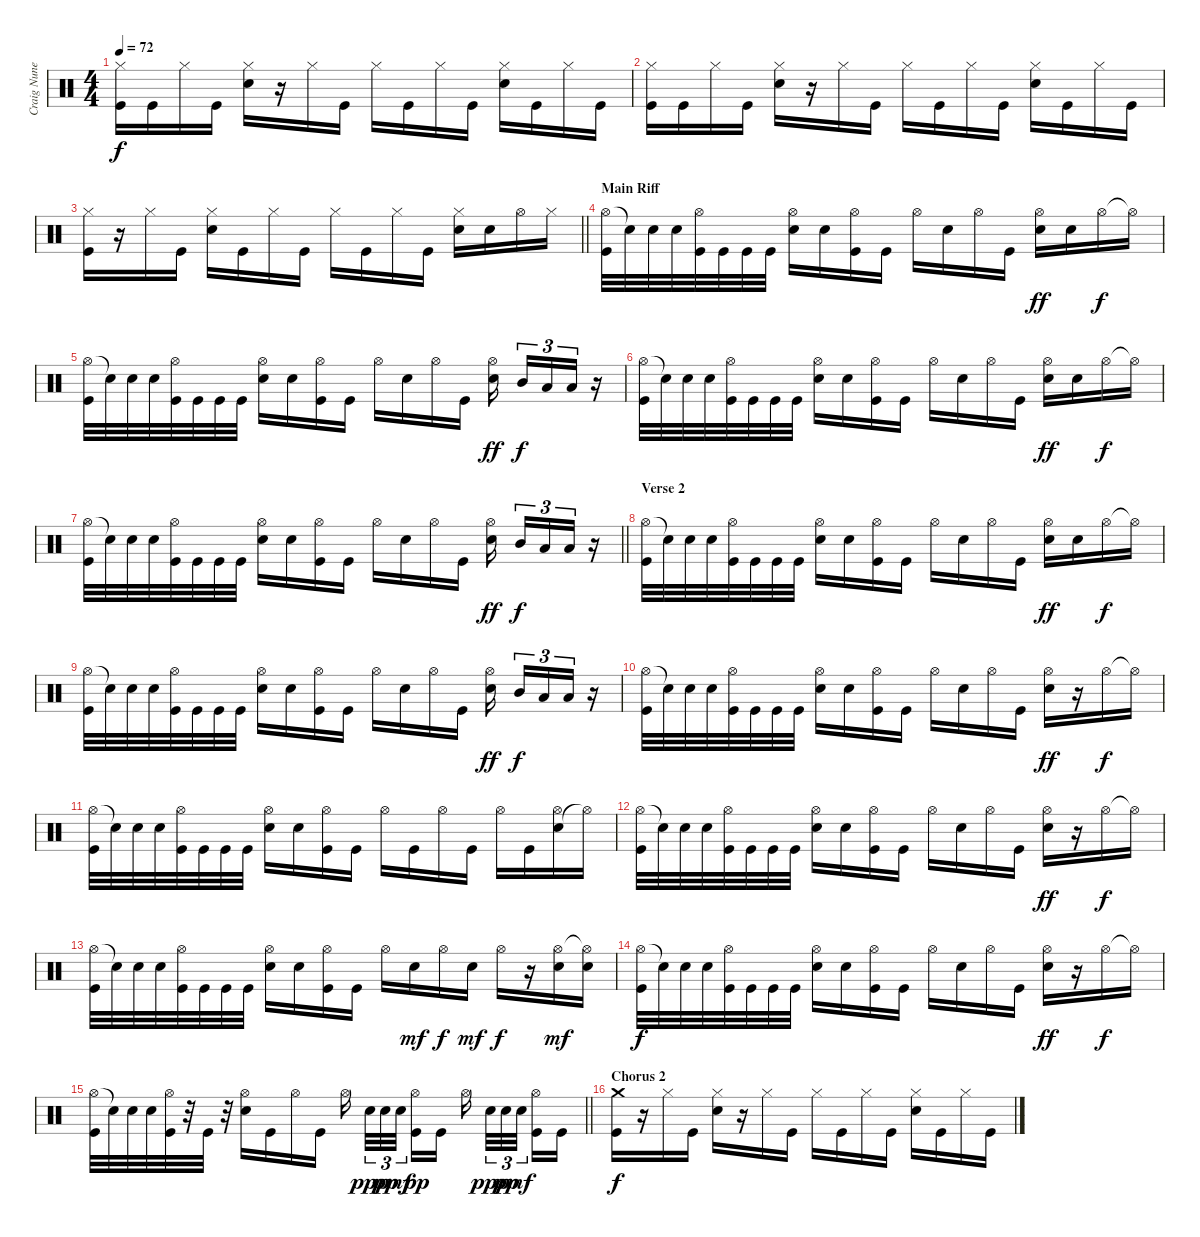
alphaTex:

\track ("Craig Nunenmacher" "Craig Nune") {instrument percussion}
\staff {score}
\articulation defaults
\ts (4 4)
\tempo 72
\clef neutral
\ks c
("Hi-Hat (closed)" "Kick (hit)").16{dy f} "Kick (hit)".16 "Hi-Hat (closed)".16 "Kick (hit)".16 ("Snare (hit) 2" "Hi-Hat (closed)").16 r.16 "Hi-Hat (closed)".16 "Kick (hit)".16 "Hi-Hat (closed)".16 "Kick (hit)".16 "Hi-Hat (closed)".16 "Kick (hit)".16 ("Snare (hit) 2" "Hi-Hat (closed)").16 "Kick (hit)".16 "Hi-Hat (closed)".16 "Kick (hit)".16 |
("Hi-Hat (closed)" "Kick (hit)").16 "Kick (hit)".16 "Hi-Hat (closed)".16 "Kick (hit)".16 ("Snare (hit) 2" "Hi-Hat (closed)").16 r.16 "Hi-Hat (closed)".16 "Kick (hit)".16 "Hi-Hat (closed)".16 "Kick (hit)".16 "Hi-Hat (closed)".16 "Kick (hit)".16 ("Snare (hit) 2" "Hi-Hat (closed)").16 "Kick (hit)".16 "Hi-Hat (closed)".16 "Kick (hit)".16 |
\barLineRight lightlight
("Hi-Hat (closed)" "Kick (hit)").16 r.16 "Hi-Hat (closed)".16 "Kick (hit)".16 ("Snare (hit) 2" "Hi-Hat (closed)").16 "Kick (hit)".16 "Hi-Hat (closed)".16 "Kick (hit)".16 "Hi-Hat (closed)".16 "Kick (hit)".16 "Hi-Hat (closed)".16 "Kick (hit)".16 ("Snare (hit) 2" "Hi-Hat (closed)").16 "Snare (hit) 2".16 "Hi-Hat (open)".16 "Hi-Hat (closed)".16 |
\section ("" "Main Riff")
("Hi-Hat (open)" "Kick (hit)").32 "Snare (hit)"{t}.32 "Snare (hit) 2".32 "Snare (hit) 2".32 ("Hi-Hat (open)" "Kick (hit)").32 "Kick (hit)".32 "Kick (hit)".32 "Kick (hit)".32 ("Snare (hit) 2" "Hi-Hat (open)").16 "Snare (hit) 2".16 ("Hi-Hat (open)" "Kick (hit)").16 "Kick (hit)".16 "Hi-Hat (open)".16 "Snare (hit) 2".16 "Hi-Hat (open)".16 "Kick (hit)".16 ("Snare (hit) 2" "Hi-Hat (open)").16{dy ff} "Snare (hit) 2".16 "Hi-Hat (open)".16{dy f} "Hi-Hat (open)"{t}.16 |
("Hi-Hat (open)" "Kick (hit)").32 "Snare (hit)"{t}.32 "Snare (hit) 2".32 "Snare (hit) 2".32 ("Hi-Hat (open)" "Kick (hit)").32 "Kick (hit)".32 "Kick (hit)".32 "Kick (hit)".32 ("Snare (hit) 2" "Hi-Hat (open)").16 "Snare (hit) 2".16 ("Hi-Hat (open)" "Kick (hit)").16 "Kick (hit)".16 "Hi-Hat (open)".16 "Snare (hit) 2".16 "Hi-Hat (open)".16 "Kick (hit)".16 ("Snare (hit) 2" "Hi-Hat (open)").16{dy ff beam splitsecondary} "Mid Tom (hit)".16{tu (3 2) dy f} "Low Tom (hit)".16{tu (3 2)} "Low Floor Tom (hit)".16{tu (3 2)} r.16 |
("Hi-Hat (open)" "Kick (hit)").32 "Snare (hit)"{t}.32 "Snare (hit) 2".32 "Snare (hit) 2".32 ("Hi-Hat (open)" "Kick (hit)").32 "Kick (hit)".32 "Kick (hit)".32 "Kick (hit)".32 ("Snare (hit) 2" "Hi-Hat (open)").16 "Snare (hit) 2".16 ("Hi-Hat (open)" "Kick (hit)").16 "Kick (hit)".16 "Hi-Hat (open)".16 "Snare (hit) 2".16 "Hi-Hat (open)".16 "Kick (hit)".16 ("Snare (hit) 2" "Hi-Hat (open)").16{dy ff} "Snare (hit) 2".16 "Hi-Hat (open)".16{dy f} "Hi-Hat (open)"{t}.16 |
\barLineRight lightlight
("Hi-Hat (open)" "Kick (hit)").32 "Snare (hit)"{t}.32 "Snare (hit) 2".32 "Snare (hit) 2".32 ("Hi-Hat (open)" "Kick (hit)").32 "Kick (hit)".32 "Kick (hit)".32 "Kick (hit)".32 ("Snare (hit) 2" "Hi-Hat (open)").16 "Snare (hit) 2".16 ("Hi-Hat (open)" "Kick (hit)").16 "Kick (hit)".16 "Hi-Hat (open)".16 "Snare (hit) 2".16 "Hi-Hat (open)".16 "Kick (hit)".16 ("Snare (hit) 2" "Hi-Hat (open)").16{dy ff beam splitsecondary} "Mid Tom (hit)".16{tu (3 2) dy f} "Low Tom (hit)".16{tu (3 2)} "Low Floor Tom (hit)".16{tu (3 2)} r.16 |
\section ("" "Verse 2")
("Hi-Hat (open)" "Kick (hit)").32 "Snare (hit)"{t}.32 "Snare (hit) 2".32 "Snare (hit) 2".32 ("Hi-Hat (open)" "Kick (hit)").32 "Kick (hit)".32 "Kick (hit)".32 "Kick (hit)".32 ("Snare (hit) 2" "Hi-Hat (open)").16 "Snare (hit) 2".16 ("Hi-Hat (open)" "Kick (hit)").16 "Kick (hit)".16 "Hi-Hat (open)".16 "Snare (hit) 2".16 "Hi-Hat (open)".16 "Kick (hit)".16 ("Snare (hit) 2" "Hi-Hat (open)").16{dy ff} "Snare (hit) 2".16 "Hi-Hat (open)".16{dy f} "Hi-Hat (open)"{t}.16 |
("Hi-Hat (open)" "Kick (hit)").32 "Snare (hit)"{t}.32 "Snare (hit) 2".32 "Snare (hit) 2".32 ("Hi-Hat (open)" "Kick (hit)").32 "Kick (hit)".32 "Kick (hit)".32 "Kick (hit)".32 ("Snare (hit) 2" "Hi-Hat (open)").16 "Snare (hit) 2".16 ("Hi-Hat (open)" "Kick (hit)").16 "Kick (hit)".16 "Hi-Hat (open)".16 "Snare (hit) 2".16 "Hi-Hat (open)".16 "Kick (hit)".16 ("Snare (hit) 2" "Hi-Hat (open)").16{dy ff beam splitsecondary} "Mid Tom (hit)".16{tu (3 2) dy f} "Low Tom (hit)".16{tu (3 2)} "Low Floor Tom (hit)".16{tu (3 2)} r.16 |
("Hi-Hat (open)" "Kick (hit)").32 "Snare (hit)"{t}.32 "Snare (hit) 2".32 "Snare (hit) 2".32 ("Hi-Hat (open)" "Kick (hit)").32 "Kick (hit)".32 "Kick (hit)".32 "Kick (hit)".32 ("Snare (hit) 2" "Hi-Hat (open)").16 "Snare (hit) 2".16 ("Hi-Hat (open)" "Kick (hit)").16 "Kick (hit)".16 "Hi-Hat (open)".16 "Snare (hit) 2".16 "Hi-Hat (open)".16 "Kick (hit)".16 ("Snare (hit) 2" "Hi-Hat (open)").16{dy ff} r.16 "Hi-Hat (open)".16{dy f} "Hi-Hat (open)"{t}.16 |
("Hi-Hat (open)" "Kick (hit)").32 "Snare (hit)"{t}.32 "Snare (hit) 2".32 "Snare (hit) 2".32 ("Hi-Hat (open)" "Kick (hit)").32 "Kick (hit)".32 "Kick (hit)".32 "Kick (hit)".32 ("Snare (hit) 2" "Hi-Hat (open)").16 "Snare (hit) 2".16 ("Hi-Hat (open)" "Kick (hit)").16 "Kick (hit)".16 "Hi-Hat (open)".16 "Kick (hit)".16 "Hi-Hat (open)".16 "Kick (hit)".16 "Hi-Hat (open)".16 "Kick (hit)".16 ("Snare (hit) 2" "Hi-Hat (open)").16 "Hi-Hat (open)"{t}.16 |
("Hi-Hat (open)" "Kick (hit)").32 "Snare (hit)"{t}.32 "Snare (hit) 2".32 "Snare (hit) 2".32 ("Hi-Hat (open)" "Kick (hit)").32 "Kick (hit)".32 "Kick (hit)".32 "Kick (hit)".32 ("Snare (hit) 2" "Hi-Hat (open)").16 "Snare (hit) 2".16 ("Hi-Hat (open)" "Kick (hit)").16 "Kick (hit)".16 "Hi-Hat (open)".16 "Snare (hit) 2".16 "Hi-Hat (open)".16 "Kick (hit)".16 ("Snare (hit) 2" "Hi-Hat (open)").16{dy ff} r.16 "Hi-Hat (open)".16{dy f} "Hi-Hat (open)"{t}.16 |
("Hi-Hat (open)" "Kick (hit)").32 "Snare (hit)"{t}.32 "Snare (hit) 2".32 "Snare (hit) 2".32 ("Hi-Hat (open)" "Kick (hit)").32 "Kick (hit)".32 "Kick (hit)".32 "Kick (hit)".32 ("Snare (hit) 2" "Hi-Hat (open)").16 "Snare (hit) 2".16 ("Hi-Hat (open)" "Kick (hit)").16 "Kick (hit)".16 "Hi-Hat (open)".16 "Snare (hit) 2".16{dy mf} "Hi-Hat (open)".16{dy f} "Snare (hit) 2".16{dy mf} "Hi-Hat (open)".16{dy f} r.16 ("Snare (hit) 2" "Hi-Hat (open)").16{dy mf} ("Snare (hit) 2" "Hi-Hat (open)"{t}).16 |
("Hi-Hat (open)" "Kick (hit)").32{dy f} "Snare (hit)"{t}.32 "Snare (hit) 2".32 "Snare (hit) 2".32 ("Hi-Hat (open)" "Kick (hit)").32 "Kick (hit)".32 "Kick (hit)".32 "Kick (hit)".32 ("Snare (hit) 2" "Hi-Hat (open)").16 "Snare (hit) 2".16 ("Hi-Hat (open)" "Kick (hit)").16 "Kick (hit)".16 "Hi-Hat (open)".16 "Snare (hit) 2".16 "Hi-Hat (open)".16 "Kick (hit)".16 ("Snare (hit) 2" "Hi-Hat (open)").16{dy ff} r.16 "Hi-Hat (open)".16{dy f} "Hi-Hat (open)"{t}.16 |
\barLineRight lightlight
("Hi-Hat (open)" "Kick (hit)").32 "Snare (hit)"{t}.32 "Snare (hit) 2".32 "Snare (hit) 2".32 ("Hi-Hat (open)" "Kick (hit)").32 r.32 "Kick (hit)".32 r.32 ("Snare (hit) 2" "Hi-Hat (open)").16 "Kick (hit)".16 "Hi-Hat (open)".16 "Kick (hit)".16 "Hi-Hat (open)".16{beam splitsecondary} "Snare (hit) 2".32{tu (3 2) dy ppp} "Snare (hit) 2".32{tu (3 2) dy pp} "Snare (hit) 2".32{tu (3 2) dy mf beam splitsecondary} ("Hi-Hat (open)" "Kick (hit)").16{dy pp} "Kick (hit)".16 "Hi-Hat (open)".16{beam splitsecondary} "Snare (hit) 2".32{tu (3 2) dy ppp} "Snare (hit) 2".32{tu (3 2) dy pp} "Snare (hit) 2".32{tu (3 2) dy mf beam splitsecondary} ("Hi-Hat (open)" "Kick (hit)").16 "Kick (hit)".16 |
\section ("" "Chorus 2")
("Crash medium (hit)" "Kick (hit)").16{dy f} r.16 "Hi-Hat (closed)".16 "Kick (hit)".16 ("Snare (hit) 2" "Hi-Hat (closed)").16 r.16 "Hi-Hat (closed)".16 "Kick (hit)".16 "Hi-Hat (closed)".16 "Kick (hit)".16 "Hi-Hat (closed)".16 "Kick (hit)".16 ("Snare (hit) 2" "Hi-Hat (closed)").16 "Kick (hit)".16 "Hi-Hat (closed)".16 "Kick (hit)".16
